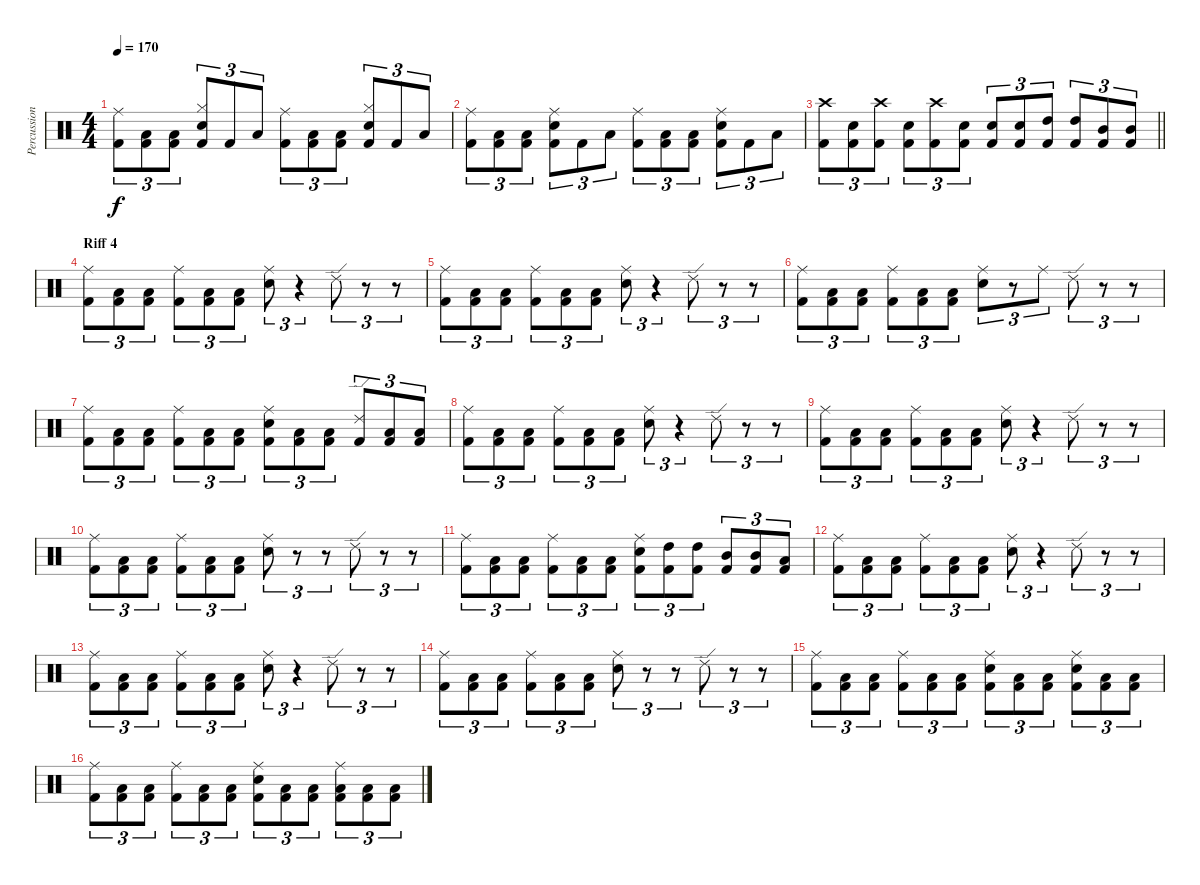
\track ("Percussions" "Percussion") {instrument percussion}
\staff {score}
\articulation defaults
\ts (4 4)
\tempo 170
\clef neutral
\ks c
("Ride (middle)" "Kick (hit) 2").8{tu (3 2) dy f} ("Low Floor Tom (hit)" "Kick (hit) 2").8{tu (3 2)} ("Low Floor Tom (hit)" "Kick (hit) 2").8{tu (3 2)} ("Hi-Hat (closed)" "Snare (hit) 2" "Kick (hit) 2").8{tu (3 2)} "Kick (hit) 2".8{tu (3 2)} "Low Floor Tom (hit)".8{tu (3 2)} ("Ride (middle)" "Kick (hit) 2").8{tu (3 2)} ("Low Floor Tom (hit)" "Kick (hit) 2").8{tu (3 2)} ("Low Floor Tom (hit)" "Kick (hit) 2").8{tu (3 2)} ("Hi-Hat (closed)" "Snare (hit) 2" "Kick (hit) 2").8{tu (3 2)} "Kick (hit) 2".8{tu (3 2)} "Low Floor Tom (hit)".8{tu (3 2)} |
("Ride (middle)" "Kick (hit) 2").8{tu (3 2)} ("Low Floor Tom (hit)" "Kick (hit) 2").8{tu (3 2)} ("Low Floor Tom (hit)" "Kick (hit) 2").8{tu (3 2)} ("Ride (middle)" "Snare (hit) 2" "Kick (hit) 2").8{tu (3 2)} "Kick (hit) 2".8{tu (3 2)} "Low Floor Tom (hit)".8{tu (3 2)} ("Ride (middle)" "Kick (hit) 2").8{tu (3 2)} ("Low Floor Tom (hit)" "Kick (hit) 2").8{tu (3 2)} ("Low Floor Tom (hit)" "Kick (hit) 2").8{tu (3 2)} ("Ride (middle)" "Snare (hit) 2" "Kick (hit) 2").8{tu (3 2)} "Kick (hit) 2".8{tu (3 2)} "Low Floor Tom (hit)".8{tu (3 2)} |
\barLineRight lightlight
("Crash high (hit)" "Kick (hit) 2").8{tu (3 2)} ("Snare (hit) 2" "Kick (hit) 2").8{tu (3 2)} ("Crash high (hit)" "Kick (hit) 2").8{tu (3 2)} ("Snare (hit) 2" "Kick (hit) 2").8{tu (3 2)} ("Crash high (hit)" "Kick (hit) 2").8{tu (3 2)} ("Snare (hit) 2" "Kick (hit) 2").8{tu (3 2)} ("Snare (hit) 2" "Kick (hit) 2").8{tu (3 2)} ("Snare (hit) 2" "Kick (hit) 2").8{tu (3 2)} ("High Tom (hit)" "Kick (hit) 2").8{tu (3 2)} ("High Tom (hit)" "Kick (hit) 2").8{tu (3 2)} ("Mid Tom (hit)" "Kick (hit) 2").8{tu (3 2)} ("Mid Tom (hit)" "Kick (hit) 2").8{tu (3 2)} |
\section ("" "Riff 4")
("Ride (middle)" "Kick (hit) 2").8{tu (3 2)} ("Low Floor Tom (hit)" "Kick (hit) 2").8{tu (3 2)} ("Low Floor Tom (hit)" "Kick (hit) 2").8{tu (3 2)} ("Ride (middle)" "Kick (hit) 2").8{tu (3 2)} ("Low Floor Tom (hit)" "Kick (hit) 2").8{tu (3 2)} ("Low Floor Tom (hit)" "Kick (hit) 2").8{tu (3 2)} ("Ride (middle)" "Snare (hit) 2").8{tu (3 2)} r.4{tu (3 2)} "Ride (edge) 2".8{tu (3 2)} r.8{tu (3 2)} r.8{tu (3 2)} |
("Ride (middle)" "Kick (hit) 2").8{tu (3 2)} ("Low Floor Tom (hit)" "Kick (hit) 2").8{tu (3 2)} ("Low Floor Tom (hit)" "Kick (hit) 2").8{tu (3 2)} ("Ride (middle)" "Kick (hit) 2").8{tu (3 2)} ("Low Floor Tom (hit)" "Kick (hit) 2").8{tu (3 2)} ("Low Floor Tom (hit)" "Kick (hit) 2").8{tu (3 2)} ("Ride (middle)" "Snare (hit) 2").8{tu (3 2)} r.4{tu (3 2)} "Ride (edge) 2".8{tu (3 2)} r.8{tu (3 2)} r.8{tu (3 2)} |
("Ride (middle)" "Kick (hit) 2").8{tu (3 2)} ("Low Floor Tom (hit)" "Kick (hit) 2").8{tu (3 2)} ("Low Floor Tom (hit)" "Kick (hit) 2").8{tu (3 2)} ("Ride (middle)" "Kick (hit) 2").8{tu (3 2)} ("Low Floor Tom (hit)" "Kick (hit) 2").8{tu (3 2)} ("Low Floor Tom (hit)" "Kick (hit) 2").8{tu (3 2)} ("Ride (middle)" "Snare (hit) 2").8{tu (3 2)} r.8{tu (3 2)} "Ride (middle)".8{tu (3 2)} "Ride (edge) 2".8{tu (3 2)} r.8{tu (3 2)} r.8{tu (3 2)} |
("Ride (middle)" "Kick (hit) 2").8{tu (3 2)} ("Low Floor Tom (hit)" "Kick (hit) 2").8{tu (3 2)} ("Low Floor Tom (hit)" "Kick (hit) 2").8{tu (3 2)} ("Ride (middle)" "Kick (hit) 2").8{tu (3 2)} ("Low Floor Tom (hit)" "Kick (hit) 2").8{tu (3 2)} ("Low Floor Tom (hit)" "Kick (hit) 2").8{tu (3 2)} ("Ride (middle)" "Snare (hit) 2" "Kick (hit) 2").8{tu (3 2)} ("Low Floor Tom (hit)" "Kick (hit) 2").8{tu (3 2)} ("Low Floor Tom (hit)" "Kick (hit) 2").8{tu (3 2)} ("Ride (edge) 2" "Kick (hit) 2").8{tu (3 2)} ("Low Floor Tom (hit)" "Kick (hit) 2").8{tu (3 2)} ("Low Floor Tom (hit)" "Kick (hit) 2").8{tu (3 2)} |
("Ride (middle)" "Kick (hit) 2").8{tu (3 2)} ("Low Floor Tom (hit)" "Kick (hit) 2").8{tu (3 2)} ("Low Floor Tom (hit)" "Kick (hit) 2").8{tu (3 2)} ("Ride (middle)" "Kick (hit) 2").8{tu (3 2)} ("Low Floor Tom (hit)" "Kick (hit) 2").8{tu (3 2)} ("Low Floor Tom (hit)" "Kick (hit) 2").8{tu (3 2)} ("Ride (middle)" "Snare (hit) 2").8{tu (3 2)} r.4{tu (3 2)} "Ride (edge) 2".8{tu (3 2)} r.8{tu (3 2)} r.8{tu (3 2)} |
("Ride (middle)" "Kick (hit) 2").8{tu (3 2)} ("Low Floor Tom (hit)" "Kick (hit) 2").8{tu (3 2)} ("Low Floor Tom (hit)" "Kick (hit) 2").8{tu (3 2)} ("Ride (middle)" "Kick (hit) 2").8{tu (3 2)} ("Low Floor Tom (hit)" "Kick (hit) 2").8{tu (3 2)} ("Low Floor Tom (hit)" "Kick (hit) 2").8{tu (3 2)} ("Ride (middle)" "Snare (hit) 2").8{tu (3 2)} r.4{tu (3 2)} "Ride (edge) 2".8{tu (3 2)} r.8{tu (3 2)} r.8{tu (3 2)} |
("Ride (middle)" "Kick (hit) 2").8{tu (3 2)} ("Low Floor Tom (hit)" "Kick (hit) 2").8{tu (3 2)} ("Low Floor Tom (hit)" "Kick (hit) 2").8{tu (3 2)} ("Ride (middle)" "Kick (hit) 2").8{tu (3 2)} ("Low Floor Tom (hit)" "Kick (hit) 2").8{tu (3 2)} ("Low Floor Tom (hit)" "Kick (hit) 2").8{tu (3 2)} ("Ride (middle)" "Snare (hit) 2").8{tu (3 2)} r.8{tu (3 2)} r.8{tu (3 2)} "Ride (edge) 2".8{tu (3 2)} r.8{tu (3 2)} r.8{tu (3 2)} |
("Ride (middle)" "Kick (hit) 2").8{tu (3 2)} ("Low Floor Tom (hit)" "Kick (hit) 2").8{tu (3 2)} ("Low Floor Tom (hit)" "Kick (hit) 2").8{tu (3 2)} ("Ride (middle)" "Kick (hit) 2").8{tu (3 2)} ("Low Floor Tom (hit)" "Kick (hit) 2").8{tu (3 2)} ("Low Floor Tom (hit)" "Kick (hit) 2").8{tu (3 2)} ("Ride (middle)" "Snare (hit) 2" "Kick (hit) 2").8{tu (3 2)} ("High Tom (hit)" "Kick (hit) 2").8{tu (3 2)} ("High Tom (hit)" "Kick (hit) 2").8{tu (3 2)} ("Mid Tom (hit)" "Kick (hit) 2").8{tu (3 2)} ("Mid Tom (hit)" "Kick (hit) 2").8{tu (3 2)} ("Low Tom (hit)" "Kick (hit) 2").8{tu (3 2)} |
("Ride (middle)" "Kick (hit) 2").8{tu (3 2)} ("Low Floor Tom (hit)" "Kick (hit) 2").8{tu (3 2)} ("Low Floor Tom (hit)" "Kick (hit) 2").8{tu (3 2)} ("Ride (middle)" "Kick (hit) 2").8{tu (3 2)} ("Low Floor Tom (hit)" "Kick (hit) 2").8{tu (3 2)} ("Low Floor Tom (hit)" "Kick (hit) 2").8{tu (3 2)} ("Ride (middle)" "Snare (hit) 2").8{tu (3 2)} r.4{tu (3 2)} "Ride (edge) 2".8{tu (3 2)} r.8{tu (3 2)} r.8{tu (3 2)} |
("Ride (middle)" "Kick (hit) 2").8{tu (3 2)} ("Low Floor Tom (hit)" "Kick (hit) 2").8{tu (3 2)} ("Low Floor Tom (hit)" "Kick (hit) 2").8{tu (3 2)} ("Ride (middle)" "Kick (hit) 2").8{tu (3 2)} ("Low Floor Tom (hit)" "Kick (hit) 2").8{tu (3 2)} ("Low Floor Tom (hit)" "Kick (hit) 2").8{tu (3 2)} ("Ride (middle)" "Snare (hit) 2").8{tu (3 2)} r.4{tu (3 2)} "Ride (edge) 2".8{tu (3 2)} r.8{tu (3 2)} r.8{tu (3 2)} |
("Ride (middle)" "Kick (hit) 2").8{tu (3 2)} ("Low Floor Tom (hit)" "Kick (hit) 2").8{tu (3 2)} ("Low Floor Tom (hit)" "Kick (hit) 2").8{tu (3 2)} ("Ride (middle)" "Kick (hit) 2").8{tu (3 2)} ("Low Floor Tom (hit)" "Kick (hit) 2").8{tu (3 2)} ("Low Floor Tom (hit)" "Kick (hit) 2").8{tu (3 2)} ("Ride (middle)" "Snare (hit) 2").8{tu (3 2)} r.8{tu (3 2)} r.8{tu (3 2)} "Ride (edge) 2".8{tu (3 2)} r.8{tu (3 2)} r.8{tu (3 2)} |
("Ride (middle)" "Kick (hit) 2").8{tu (3 2)} ("Low Floor Tom (hit)" "Kick (hit) 2").8{tu (3 2)} ("Low Floor Tom (hit)" "Kick (hit) 2").8{tu (3 2)} ("Ride (middle)" "Kick (hit) 2").8{tu (3 2)} ("Low Floor Tom (hit)" "Kick (hit) 2").8{tu (3 2)} ("Low Floor Tom (hit)" "Kick (hit) 2").8{tu (3 2)} ("Ride (middle)" "Snare (hit) 2" "Kick (hit) 2").8{tu (3 2)} ("Low Floor Tom (hit)" "Kick (hit) 2").8{tu (3 2)} ("Low Floor Tom (hit)" "Kick (hit) 2").8{tu (3 2)} ("Ride (middle)" "Snare (hit) 2" "Kick (hit) 2").8{tu (3 2)} ("Low Floor Tom (hit)" "Kick (hit) 2").8{tu (3 2)} ("Low Floor Tom (hit)" "Kick (hit) 2").8{tu (3 2)} |
("Ride (middle)" "Kick (hit) 2").8{tu (3 2)} ("Low Floor Tom (hit)" "Kick (hit) 2").8{tu (3 2)} ("Low Floor Tom (hit)" "Kick (hit) 2").8{tu (3 2)} ("Ride (middle)" "Kick (hit) 2").8{tu (3 2)} ("Low Floor Tom (hit)" "Kick (hit) 2").8{tu (3 2)} ("Low Floor Tom (hit)" "Kick (hit) 2").8{tu (3 2)} ("Ride (middle)" "Snare (hit) 2" "Kick (hit) 2").8{tu (3 2)} ("Low Floor Tom (hit)" "Kick (hit) 2").8{tu (3 2)} ("Low Floor Tom (hit)" "Kick (hit) 2").8{tu (3 2)} ("Ride (middle)" "Low Floor Tom (hit)" "Kick (hit) 2").8{tu (3 2)} ("Low Floor Tom (hit)" "Kick (hit) 2").8{tu (3 2)} ("Low Floor Tom (hit)" "Kick (hit) 2").8{tu (3 2)}
